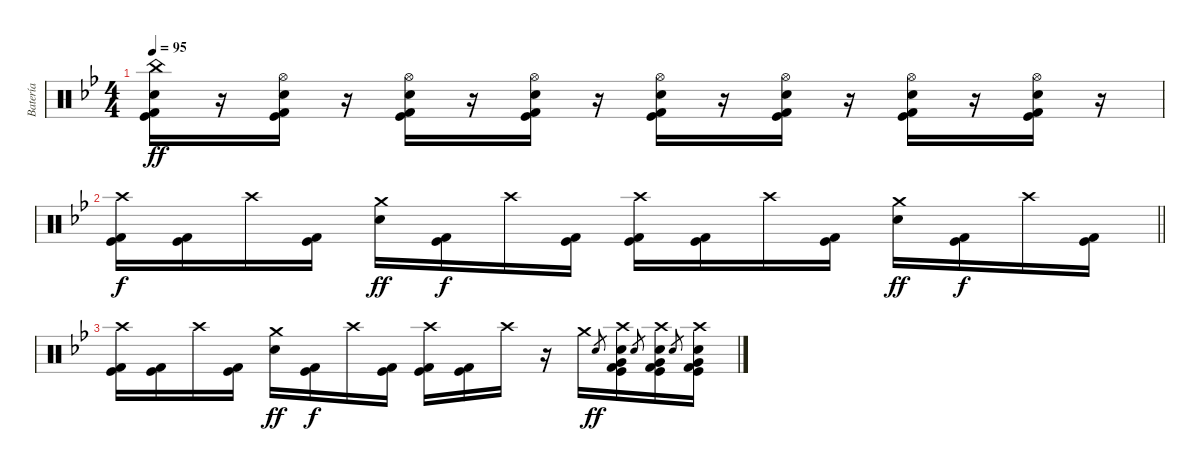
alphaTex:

\track ("Batería" "Batería") {instrument percussion}
\staff {score}
\articulation defaults
\ts (4 4)
\tempo 95
\clef neutral
\ks bb
("China (hit)" "Electric Snare (hit)" "Kick (hit) 2" "Kick (hit)").16{bd 60 dy ff} r.16 ("Hi-Hat (open)" "Electric Snare (hit)" "Kick (hit) 2" "Kick (hit)").16{bd 60} r.16 ("Hi-Hat (open)" "Electric Snare (hit)" "Kick (hit) 2" "Kick (hit)").16{bd 60} r.16 ("Hi-Hat (open)" "Electric Snare (hit)" "Kick (hit) 2" "Kick (hit)").16{bd 60} r.16 ("Hi-Hat (open)" "Electric Snare (hit)" "Kick (hit) 2" "Kick (hit)").16{bd 60} r.16 ("Hi-Hat (open)" "Electric Snare (hit)" "Kick (hit) 2" "Kick (hit)").16{bd 60} r.16 ("Hi-Hat (open)" "Electric Snare (hit)" "Kick (hit) 2" "Kick (hit)").16{bd 60} r.16 ("Hi-Hat (open)" "Electric Snare (hit)" "Kick (hit) 2" "Kick (hit)").16{bd 60} r.16 |
\barLineRight lightlight
("Crash high (hit)" "Kick (hit) 2" "Kick (hit)").16{dy f} ("Kick (hit) 2" "Kick (hit)").16 "Crash high (hit)".16 ("Kick (hit) 2" "Kick (hit)").16 ("Crash medium (hit)" "Electric Snare (hit)").16{dy ff} ("Kick (hit) 2" "Kick (hit)").16{dy f} "Crash high (hit)".16 ("Kick (hit) 2" "Kick (hit)").16 ("Crash high (hit)" "Kick (hit) 2" "Kick (hit)").16 ("Kick (hit) 2" "Kick (hit)").16 "Crash high (hit)".16 ("Kick (hit) 2" "Kick (hit)").16 ("Crash medium (hit)" "Electric Snare (hit)").16{dy ff} ("Kick (hit) 2" "Kick (hit)").16{dy f} "Crash high (hit)".16 ("Kick (hit) 2" "Kick (hit)").16 |
("Crash high (hit)" "Kick (hit) 2" "Kick (hit)").16 ("Kick (hit) 2" "Kick (hit)").16 "Crash high (hit)".16 ("Kick (hit) 2" "Kick (hit)").16 ("Crash medium (hit)" "Electric Snare (hit)").16{dy ff} ("Kick (hit) 2" "Kick (hit)").16{dy f} "Crash high (hit)".16 ("Kick (hit) 2" "Kick (hit)").16 ("Crash high (hit)" "Kick (hit) 2" "Kick (hit)").16 ("Kick (hit) 2" "Kick (hit)").16 "Crash high (hit)".16 r.16 "Crash medium (hit)".16 "Electric Snare (hit)".8{gr dy ff} ("Crash high (hit)" "Very Low Tom (hit)" "Electric Snare (hit)" "Kick (hit) 2" "Kick (hit)").16 "Electric Snare (hit)".8{gr} ("Crash high (hit)" "Very Low Tom (hit)" "Electric Snare (hit)" "Kick (hit) 2" "Kick (hit)").16 "Electric Snare (hit)".8{gr} ("Crash high (hit)" "Very Low Tom (hit)" "Electric Snare (hit)" "Kick (hit) 2" "Kick (hit)").16
